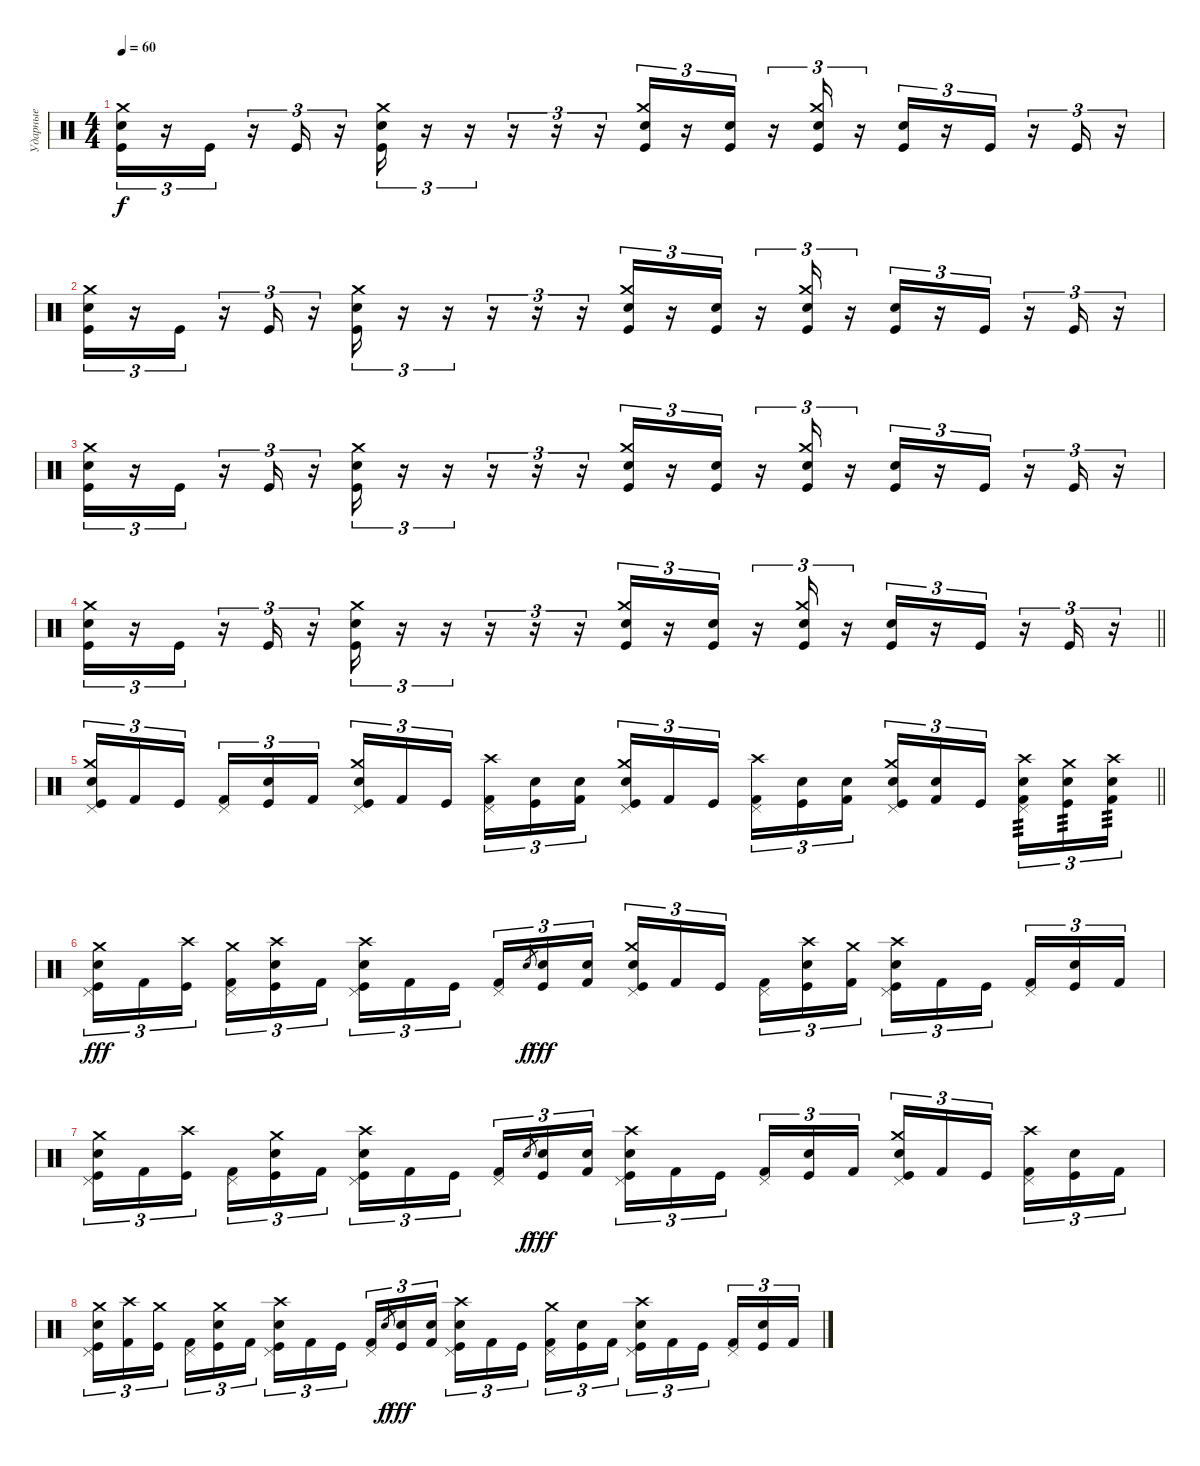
\track ("Ударные" "Ударные") {instrument percussion}
\staff {score}
\articulation defaults
\ts (4 4)
\tempo 60
\clef neutral
\ks c
("Snare (hit) 2" "Kick (hit)" "Crash medium (hit)").16{tu (3 2) dy f} r.16{tu (3 2)} "Kick (hit)".16{tu (3 2)} r.16{tu (3 2)} "Kick (hit)".16{tu (3 2)} r.16{tu (3 2)} ("Snare (hit) 2" "Kick (hit)" "Crash medium (hit)").16{tu (3 2)} r.16{tu (3 2)} r.16{tu (3 2)} r.16{tu (3 2)} r.16{tu (3 2)} r.16{tu (3 2)} ("Electric Snare (hit)" "Kick (hit)" "Crash medium (hit)").16{tu (3 2)} r.16{tu (3 2)} ("Snare (hit) 2" "Kick (hit)").16{tu (3 2)} r.16{tu (3 2)} ("Electric Snare (hit)" "Kick (hit)" "Crash medium (hit)").16{tu (3 2)} r.16{tu (3 2)} ("Snare (hit) 2" "Kick (hit)").16{tu (3 2)} r.16{tu (3 2)} "Kick (hit)".16{tu (3 2)} r.16{tu (3 2)} "Kick (hit)".16{tu (3 2)} r.16{tu (3 2)} |
("Snare (hit) 2" "Kick (hit)" "Crash medium (hit)").16{tu (3 2)} r.16{tu (3 2)} "Kick (hit)".16{tu (3 2)} r.16{tu (3 2)} "Kick (hit)".16{tu (3 2)} r.16{tu (3 2)} ("Snare (hit) 2" "Kick (hit)" "Crash medium (hit)").16{tu (3 2)} r.16{tu (3 2)} r.16{tu (3 2)} r.16{tu (3 2)} r.16{tu (3 2)} r.16{tu (3 2)} ("Electric Snare (hit)" "Kick (hit)" "Crash medium (hit)").16{tu (3 2)} r.16{tu (3 2)} ("Snare (hit) 2" "Kick (hit)").16{tu (3 2)} r.16{tu (3 2)} ("Electric Snare (hit)" "Kick (hit)" "Crash medium (hit)").16{tu (3 2)} r.16{tu (3 2)} ("Snare (hit) 2" "Kick (hit)").16{tu (3 2)} r.16{tu (3 2)} "Kick (hit)".16{tu (3 2)} r.16{tu (3 2)} "Kick (hit)".16{tu (3 2)} r.16{tu (3 2)} |
("Snare (hit) 2" "Kick (hit)" "Crash medium (hit)").16{tu (3 2)} r.16{tu (3 2)} "Kick (hit)".16{tu (3 2)} r.16{tu (3 2)} "Kick (hit)".16{tu (3 2)} r.16{tu (3 2)} ("Snare (hit) 2" "Kick (hit)" "Crash medium (hit)").16{tu (3 2)} r.16{tu (3 2)} r.16{tu (3 2)} r.16{tu (3 2)} r.16{tu (3 2)} r.16{tu (3 2)} ("Electric Snare (hit)" "Kick (hit)" "Crash medium (hit)").16{tu (3 2)} r.16{tu (3 2)} ("Snare (hit) 2" "Kick (hit)").16{tu (3 2)} r.16{tu (3 2)} ("Electric Snare (hit)" "Kick (hit)" "Crash medium (hit)").16{tu (3 2)} r.16{tu (3 2)} ("Snare (hit) 2" "Kick (hit)").16{tu (3 2)} r.16{tu (3 2)} "Kick (hit)".16{tu (3 2)} r.16{tu (3 2)} "Kick (hit)".16{tu (3 2)} r.16{tu (3 2)} |
\barLineRight lightlight
("Snare (hit) 2" "Kick (hit)" "Crash medium (hit)").16{tu (3 2)} r.16{tu (3 2)} "Kick (hit)".16{tu (3 2)} r.16{tu (3 2)} "Kick (hit)".16{tu (3 2)} r.16{tu (3 2)} ("Snare (hit) 2" "Kick (hit)" "Crash medium (hit)").16{tu (3 2)} r.16{tu (3 2)} r.16{tu (3 2)} r.16{tu (3 2)} r.16{tu (3 2)} r.16{tu (3 2)} ("Electric Snare (hit)" "Kick (hit)" "Crash medium (hit)").16{tu (3 2)} r.16{tu (3 2)} ("Snare (hit) 2" "Kick (hit)").16{tu (3 2)} r.16{tu (3 2)} ("Electric Snare (hit)" "Kick (hit)" "Crash medium (hit)").16{tu (3 2)} r.16{tu (3 2)} ("Snare (hit) 2" "Kick (hit)").16{tu (3 2)} r.16{tu (3 2)} "Kick (hit)".16{tu (3 2)} r.16{tu (3 2)} "Kick (hit)".16{tu (3 2)} r.16{tu (3 2)} |
\barLineRight lightlight
("Snare (hit) 2" "Kick (hit)" "Pedal Hi-Hat (hit)" "Crash medium (hit)").16{tu (3 2)} "Kick (hit) 2".16{tu (3 2)} "Kick (hit)".16{tu (3 2) beam splitsecondary} ("Kick (hit) 2" "Pedal Hi-Hat (hit)").16{tu (3 2)} ("Snare (hit) 2" "Kick (hit)").16{tu (3 2)} "Kick (hit) 2".16{tu (3 2)} ("Snare (hit) 2" "Kick (hit)" "Pedal Hi-Hat (hit)" "Crash medium (hit)").16{tu (3 2)} "Kick (hit) 2".16{tu (3 2)} "Kick (hit)".16{tu (3 2) beam splitsecondary} ("Kick (hit) 2" "Pedal Hi-Hat (hit)" "Crash high (hit)").16{tu (3 2)} ("Electric Snare (hit)" "Kick (hit)").16{tu (3 2)} ("Snare (hit) 2" "Kick (hit) 2").16{tu (3 2)} ("Electric Snare (hit)" "Kick (hit)" "Pedal Hi-Hat (hit)" "Crash medium (hit)").16{tu (3 2)} "Kick (hit) 2".16{tu (3 2)} "Kick (hit)".16{tu (3 2) beam splitsecondary} ("Kick (hit) 2" "Pedal Hi-Hat (hit)" "Crash high (hit)").16{tu (3 2)} ("Snare (hit) 2" "Kick (hit)").16{tu (3 2)} ("Electric Snare (hit)" "Kick (hit) 2").16{tu (3 2)} ("Snare (hit) 2" "Kick (hit)" "Pedal Hi-Hat (hit)" "Crash medium (hit)").16{tu (3 2)} ("Electric Snare (hit)" "Kick (hit) 2").16{tu (3 2)} "Kick (hit)".16{tu (3 2) beam splitsecondary} ("Electric Snare (hit)" "Kick (hit) 2" "Pedal Hi-Hat (hit)" "Crash high (hit)").16{tu (3 2) tp 3} ("Electric Snare (hit)" "Kick (hit)" "Crash medium (hit)").16{tu (3 2) tp 3} ("Electric Snare (hit)" "Kick (hit) 2" "Crash high (hit)").16{tu (3 2) tp 3} |
\section ("" "")
("Snare (hit) 2" "Kick (hit)" "Pedal Hi-Hat (hit)" "Crash medium (hit)").16{tu (3 2) dy fff} "Kick (hit) 2".16{tu (3 2)} ("Kick (hit)" "Crash high (hit)").16{tu (3 2) beam splitsecondary} ("Kick (hit) 2" "Pedal Hi-Hat (hit)" "Crash medium (hit)").16{tu (3 2)} ("Snare (hit) 2" "Kick (hit)" "Crash high (hit)").16{tu (3 2)} "Kick (hit) 2".16{tu (3 2)} ("Snare (hit) 2" "Kick (hit)" "Pedal Hi-Hat (hit)" "Crash high (hit)").16{tu (3 2)} "Kick (hit) 2".16{tu (3 2)} "Kick (hit)".16{tu (3 2) beam splitsecondary} ("Kick (hit) 2" "Pedal Hi-Hat (hit)").16{tu (3 2)} "Electric Snare (hit)".8{gr dy f} ("Electric Snare (hit)" "Kick (hit)").16{tu (3 2) dy fff} ("Electric Snare (hit)" "Kick (hit) 2").16{tu (3 2)} ("Snare (hit) 2" "Kick (hit)" "Pedal Hi-Hat (hit)" "Crash medium (hit)").16{tu (3 2)} "Kick (hit) 2".16{tu (3 2)} "Kick (hit)".16{tu (3 2) beam splitsecondary} ("Kick (hit) 2" "Pedal Hi-Hat (hit)").16{tu (3 2)} ("Snare (hit) 2" "Kick (hit)" "Crash high (hit)").16{tu (3 2)} ("Kick (hit) 2" "Crash medium (hit)").16{tu (3 2)} ("Snare (hit) 2" "Kick (hit)" "Pedal Hi-Hat (hit)" "Crash high (hit)").16{tu (3 2)} "Kick (hit) 2".16{tu (3 2)} "Kick (hit)".16{tu (3 2) beam splitsecondary} ("Kick (hit) 2" "Pedal Hi-Hat (hit)").16{tu (3 2)} ("Snare (hit) 2" "Kick (hit)").16{tu (3 2)} "Kick (hit) 2".16{tu (3 2)} |
("Snare (hit) 2" "Kick (hit)" "Pedal Hi-Hat (hit)" "Crash medium (hit)").16{tu (3 2)} "Kick (hit) 2".16{tu (3 2)} ("Kick (hit)" "Crash high (hit)").16{tu (3 2) beam splitsecondary} ("Kick (hit) 2" "Pedal Hi-Hat (hit)").16{tu (3 2)} ("Snare (hit) 2" "Kick (hit)" "Crash medium (hit)").16{tu (3 2)} "Kick (hit) 2".16{tu (3 2)} ("Snare (hit) 2" "Kick (hit)" "Pedal Hi-Hat (hit)" "Crash high (hit)").16{tu (3 2)} "Kick (hit) 2".16{tu (3 2)} "Kick (hit)".16{tu (3 2) beam splitsecondary} ("Kick (hit) 2" "Pedal Hi-Hat (hit)").16{tu (3 2)} "Electric Snare (hit)".8{gr dy f} ("Electric Snare (hit)" "Kick (hit)").16{tu (3 2) dy fff} ("Electric Snare (hit)" "Kick (hit) 2").16{tu (3 2)} ("Snare (hit) 2" "Kick (hit)" "Pedal Hi-Hat (hit)" "Crash high (hit)").16{tu (3 2)} "Kick (hit) 2".16{tu (3 2)} "Kick (hit)".16{tu (3 2) beam splitsecondary} ("Kick (hit) 2" "Pedal Hi-Hat (hit)").16{tu (3 2)} ("Snare (hit) 2" "Kick (hit)").16{tu (3 2)} "Kick (hit) 2".16{tu (3 2)} ("Snare (hit) 2" "Kick (hit)" "Pedal Hi-Hat (hit)" "Crash medium (hit)").16{tu (3 2)} "Kick (hit) 2".16{tu (3 2)} "Kick (hit)".16{tu (3 2) beam splitsecondary} ("Kick (hit) 2" "Pedal Hi-Hat (hit)" "Crash high (hit)").16{tu (3 2)} ("Snare (hit) 2" "Kick (hit)").16{tu (3 2)} "Kick (hit) 2".16{tu (3 2)} |
("Snare (hit) 2" "Kick (hit)" "Pedal Hi-Hat (hit)" "Crash medium (hit)").16{tu (3 2)} ("Kick (hit) 2" "Crash high (hit)").16{tu (3 2)} ("Kick (hit)" "Crash medium (hit)").16{tu (3 2) beam splitsecondary} ("Kick (hit) 2" "Pedal Hi-Hat (hit)").16{tu (3 2)} ("Snare (hit) 2" "Kick (hit)" "Crash medium (hit)").16{tu (3 2)} "Kick (hit) 2".16{tu (3 2)} ("Snare (hit) 2" "Kick (hit)" "Pedal Hi-Hat (hit)" "Crash high (hit)").16{tu (3 2)} "Kick (hit) 2".16{tu (3 2)} "Kick (hit)".16{tu (3 2) beam splitsecondary} ("Kick (hit) 2" "Pedal Hi-Hat (hit)").16{tu (3 2)} "Electric Snare (hit)".8{gr dy f} ("Electric Snare (hit)" "Kick (hit)").16{tu (3 2) dy fff} ("Electric Snare (hit)" "Kick (hit) 2").16{tu (3 2)} ("Snare (hit) 2" "Kick (hit)" "Pedal Hi-Hat (hit)" "Crash high (hit)").16{tu (3 2)} "Kick (hit) 2".16{tu (3 2)} "Kick (hit)".16{tu (3 2) beam splitsecondary} ("Kick (hit) 2" "Pedal Hi-Hat (hit)" "Crash medium (hit)").16{tu (3 2)} ("Snare (hit) 2" "Kick (hit)").16{tu (3 2)} "Kick (hit) 2".16{tu (3 2)} ("Snare (hit) 2" "Kick (hit)" "Pedal Hi-Hat (hit)" "Crash high (hit)").16{tu (3 2)} "Kick (hit) 2".16{tu (3 2)} "Kick (hit)".16{tu (3 2) beam splitsecondary} ("Kick (hit) 2" "Pedal Hi-Hat (hit)").16{tu (3 2)} ("Snare (hit) 2" "Kick (hit)").16{tu (3 2)} "Kick (hit) 2".16{tu (3 2)}
